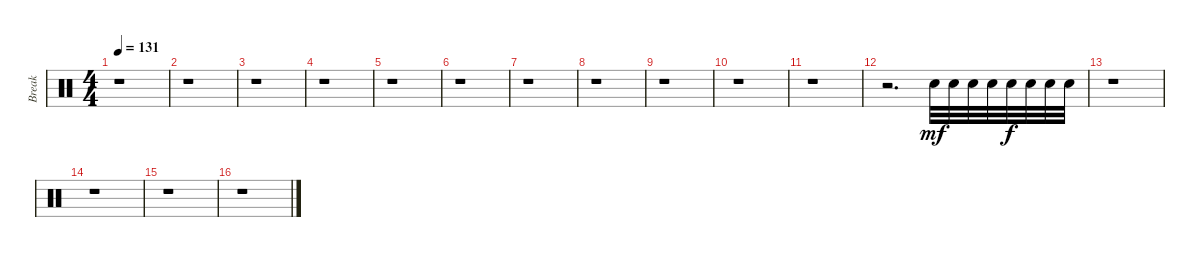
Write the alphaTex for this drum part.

\track ("Break" "Break") {instrument percussion}
\staff {score}
\articulation defaults
\ts (4 4)
\tempo 131
\clef neutral
\ks c
r.1{dy ff} |
r.1 |
r.1 |
r.1 |
r.1 |
r.1 |
r.1 |
r.1 |
r.1 |
r.1 |
r.1 |
r.2{d} "Snare (hit) 2".32{dy mf} "Snare (hit) 2".32 "Snare (hit) 2".32 "Snare (hit) 2".32 "Snare (hit) 2".32{dy f} "Snare (hit) 2".32 "Snare (hit) 2".32 "Snare (hit) 2".32 |
r.1 |
r.1 |
r.1 |
r.1
